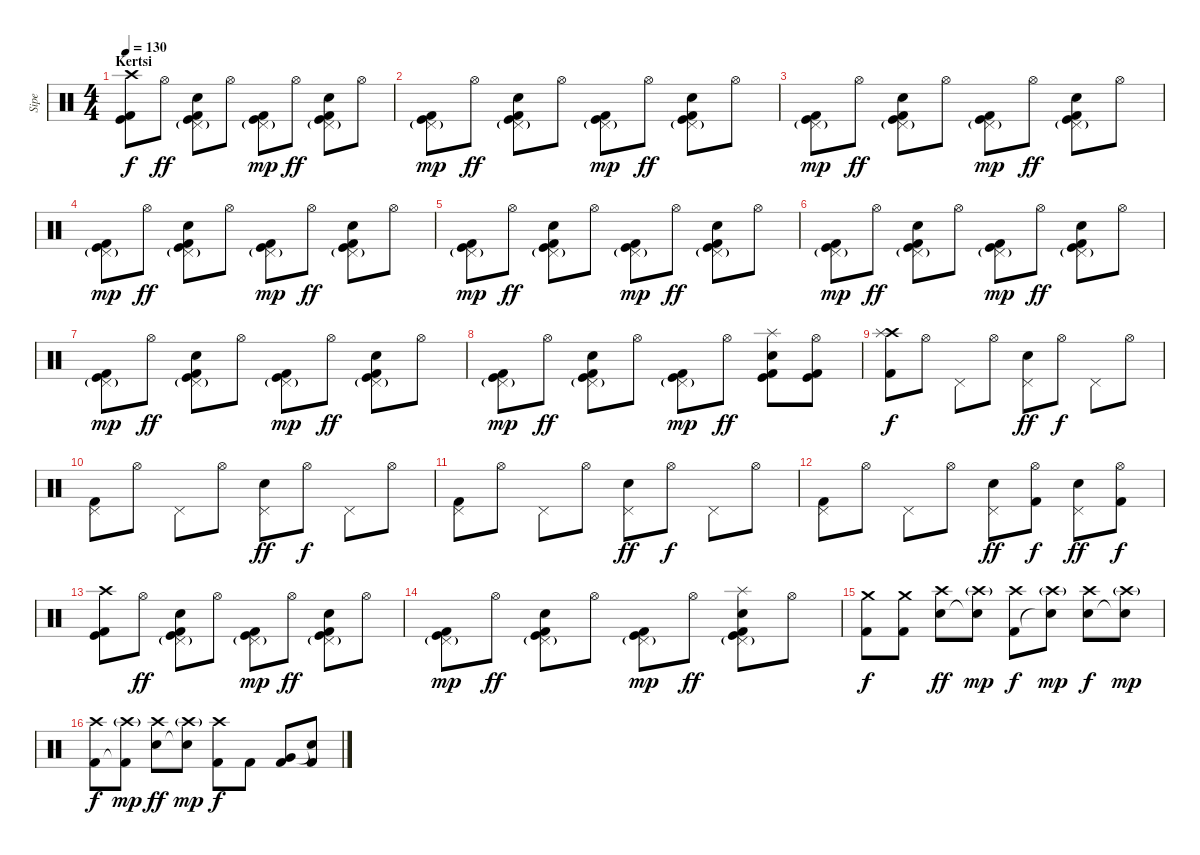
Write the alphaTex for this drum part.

\track ("Sipe" "Sipe") {instrument percussion}
\staff {score}
\articulation defaults
\ts (4 4)
\section ("" "Kertsi")
\tempo 130
\clef neutral
\ks c
("Crash high (hit)" "Kick (hit)" "Kick (hit) 2").8{dy f} "Hi-Hat (open)".8{dy ff} ("Pedal Hi-Hat (hit)"{g} "Electric Snare (hit)" "Kick (hit)" "Kick (hit) 2").8 "Hi-Hat (open)".8 ("Pedal Hi-Hat (hit)"{g} "Kick (hit)" "Kick (hit) 2").8{dy mp} "Hi-Hat (open)".8{dy ff} ("Pedal Hi-Hat (hit)"{g} "Electric Snare (hit)" "Kick (hit)" "Kick (hit) 2").8 "Hi-Hat (open)".8 |
("Pedal Hi-Hat (hit)"{g} "Kick (hit)" "Kick (hit) 2").8{dy mp} "Hi-Hat (open)".8{dy ff} ("Pedal Hi-Hat (hit)"{g} "Electric Snare (hit)" "Kick (hit)" "Kick (hit) 2").8 "Hi-Hat (open)".8 ("Pedal Hi-Hat (hit)"{g} "Kick (hit)" "Kick (hit) 2").8{dy mp} "Hi-Hat (open)".8{dy ff} ("Pedal Hi-Hat (hit)"{g} "Electric Snare (hit)" "Kick (hit)" "Kick (hit) 2").8 "Hi-Hat (open)".8 |
("Pedal Hi-Hat (hit)"{g} "Kick (hit)" "Kick (hit) 2").8{dy mp} "Hi-Hat (open)".8{dy ff} ("Pedal Hi-Hat (hit)"{g} "Electric Snare (hit)" "Kick (hit)" "Kick (hit) 2").8 "Hi-Hat (open)".8 ("Pedal Hi-Hat (hit)"{g} "Kick (hit)" "Kick (hit) 2").8{dy mp} "Hi-Hat (open)".8{dy ff} ("Pedal Hi-Hat (hit)"{g} "Electric Snare (hit)" "Kick (hit)" "Kick (hit) 2").8 "Hi-Hat (open)".8 |
("Pedal Hi-Hat (hit)"{g} "Kick (hit)" "Kick (hit) 2").8{dy mp} "Hi-Hat (open)".8{dy ff} ("Pedal Hi-Hat (hit)"{g} "Electric Snare (hit)" "Kick (hit)" "Kick (hit) 2").8 "Hi-Hat (open)".8 ("Pedal Hi-Hat (hit)"{g} "Kick (hit)" "Kick (hit) 2").8{dy mp} "Hi-Hat (open)".8{dy ff} ("Pedal Hi-Hat (hit)"{g} "Electric Snare (hit)" "Kick (hit)" "Kick (hit) 2").8 "Hi-Hat (open)".8 |
("Pedal Hi-Hat (hit)"{g} "Kick (hit)" "Kick (hit) 2").8{dy mp} "Hi-Hat (open)".8{dy ff} ("Pedal Hi-Hat (hit)"{g} "Electric Snare (hit)" "Kick (hit)" "Kick (hit) 2").8 "Hi-Hat (open)".8 ("Pedal Hi-Hat (hit)"{g} "Kick (hit)" "Kick (hit) 2").8{dy mp} "Hi-Hat (open)".8{dy ff} ("Pedal Hi-Hat (hit)"{g} "Electric Snare (hit)" "Kick (hit)" "Kick (hit) 2").8 "Hi-Hat (open)".8 |
("Pedal Hi-Hat (hit)"{g} "Kick (hit)" "Kick (hit) 2").8{dy mp} "Hi-Hat (open)".8{dy ff} ("Pedal Hi-Hat (hit)"{g} "Electric Snare (hit)" "Kick (hit)" "Kick (hit) 2").8 "Hi-Hat (open)".8 ("Pedal Hi-Hat (hit)"{g} "Kick (hit)" "Kick (hit) 2").8{dy mp} "Hi-Hat (open)".8{dy ff} ("Pedal Hi-Hat (hit)"{g} "Electric Snare (hit)" "Kick (hit)" "Kick (hit) 2").8 "Hi-Hat (open)".8 |
("Pedal Hi-Hat (hit)"{g} "Kick (hit)" "Kick (hit) 2").8{dy mp} "Hi-Hat (open)".8{dy ff} ("Pedal Hi-Hat (hit)"{g} "Electric Snare (hit)" "Kick (hit)" "Kick (hit) 2").8 "Hi-Hat (open)".8 ("Pedal Hi-Hat (hit)"{g} "Kick (hit)" "Kick (hit) 2").8{dy mp} "Hi-Hat (open)".8{dy ff} ("Pedal Hi-Hat (hit)"{g} "Electric Snare (hit)" "Kick (hit)" "Kick (hit) 2").8 "Hi-Hat (open)".8 |
("Pedal Hi-Hat (hit)"{g} "Kick (hit)" "Kick (hit) 2").8{dy mp} "Hi-Hat (open)".8{dy ff} ("Pedal Hi-Hat (hit)"{g} "Electric Snare (hit)" "Kick (hit)" "Kick (hit) 2").8 "Hi-Hat (open)".8 ("Pedal Hi-Hat (hit)"{g} "Kick (hit)" "Kick (hit) 2").8{dy mp} "Hi-Hat (open)".8{dy ff} ("Splash (hit)" "Electric Snare (hit)" "Kick (hit)" "Kick (hit) 2").8 ("Hi-Hat (open)" "Kick (hit)" "Kick (hit) 2").8 |
("Crash high (hit)" "Splash (hit)" "Kick (hit) 2").8{dy f} "Hi-Hat (open)".8 "Pedal Hi-Hat (hit)".8 "Hi-Hat (open)".8 ("Pedal Hi-Hat (hit)" "Electric Snare (hit)").8{dy ff} "Hi-Hat (open)".8{dy f} "Pedal Hi-Hat (hit)".8 "Hi-Hat (open)".8 |
("Pedal Hi-Hat (hit)" "Kick (hit) 2").8 "Hi-Hat (open)".8 "Pedal Hi-Hat (hit)".8 "Hi-Hat (open)".8 ("Pedal Hi-Hat (hit)" "Electric Snare (hit)").8{dy ff} "Hi-Hat (open)".8{dy f} "Pedal Hi-Hat (hit)".8 "Hi-Hat (open)".8 |
("Pedal Hi-Hat (hit)" "Kick (hit) 2").8 "Hi-Hat (open)".8 "Pedal Hi-Hat (hit)".8 "Hi-Hat (open)".8 ("Pedal Hi-Hat (hit)" "Electric Snare (hit)").8{dy ff} "Hi-Hat (open)".8{dy f} "Pedal Hi-Hat (hit)".8 "Hi-Hat (open)".8 |
("Pedal Hi-Hat (hit)" "Kick (hit) 2").8 "Hi-Hat (open)".8 "Pedal Hi-Hat (hit)".8 "Hi-Hat (open)".8 ("Pedal Hi-Hat (hit)" "Electric Snare (hit)").8{dy ff} ("Hi-Hat (open)" "Kick (hit) 2").8{dy f} ("Pedal Hi-Hat (hit)" "Electric Snare (hit)").8{dy ff} ("Hi-Hat (open)" "Kick (hit) 2").8{dy f} |
("Crash high (hit)" "Kick (hit)" "Kick (hit) 2").8 "Hi-Hat (open)".8{dy ff} ("Pedal Hi-Hat (hit)"{g} "Electric Snare (hit)" "Kick (hit)" "Kick (hit) 2").8 "Hi-Hat (open)".8 ("Pedal Hi-Hat (hit)"{g} "Kick (hit)" "Kick (hit) 2").8{dy mp} "Hi-Hat (open)".8{dy ff} ("Pedal Hi-Hat (hit)"{g} "Electric Snare (hit)" "Kick (hit)" "Kick (hit) 2").8 "Hi-Hat (open)".8 |
("Pedal Hi-Hat (hit)"{g} "Kick (hit)" "Kick (hit) 2").8{dy mp} "Hi-Hat (open)".8{dy ff} ("Pedal Hi-Hat (hit)"{g} "Electric Snare (hit)" "Kick (hit)" "Kick (hit) 2").8 "Hi-Hat (open)".8 ("Pedal Hi-Hat (hit)"{g} "Kick (hit)" "Kick (hit) 2").8{dy mp} "Hi-Hat (open)".8{dy ff} ("Splash (hit)" "Pedal Hi-Hat (hit)"{g} "Electric Snare (hit)" "Kick (hit)" "Kick (hit) 2").8 "Hi-Hat (open)".8 |
("Crash medium (hit)" "Kick (hit) 2").8{dy f} ("Crash medium (hit)" "Kick (hit) 2").8 ("Crash high (hit)" "Electric Snare (hit)").8{dy ff} ("Crash high (hit)"{g} "Snare (hit)"{t}).8{dy mp} ("Crash high (hit)" "Kick (hit) 2").8{dy f} ("Crash high (hit)"{g} "Snare (hit)"{t}).8{dy mp} ("Crash high (hit)" "Electric Snare (hit)").8{dy f} ("Crash high (hit)"{g} "Snare (hit)"{t}).8{dy mp} |
("Crash high (hit)" "Kick (hit) 2").8{dy f} ("Crash high (hit)"{g} "Kick (hit) 2"{t}).8{dy mp} ("Crash high (hit)" "Electric Snare (hit)").8{dy ff} ("Crash high (hit)"{g} "Snare (hit)"{t}).8{dy mp} ("Crash high (hit)" "Kick (hit) 2").8{dy f} "Kick (hit) 2".8 ("Very Low Tom (hit)" "Kick (hit) 2").8 ("Snare (hit)"{t} "Kick (hit) 2").8
